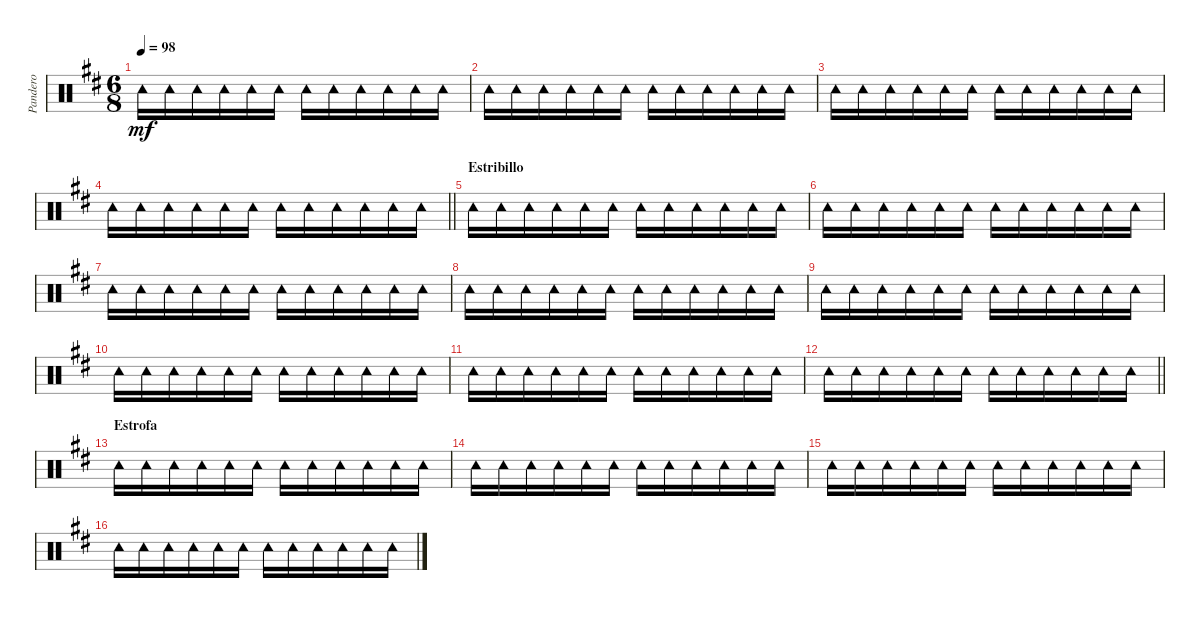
\track ("Pandero" "Pandero") {instrument percussion}
\staff {score}
\articulation defaults
\ts (6 8)
\tempo 98
\clef neutral
\ks d "Tambourine (hit)".16{dy mf} "Tambourine (hit)".16 "Tambourine (hit)".16 "Tambourine (hit)".16 "Tambourine (hit)".16 "Tambourine (hit)".16 "Tambourine (hit)".16 "Tambourine (hit)".16 "Tambourine (hit)".16 "Tambourine (hit)".16 "Tambourine (hit)".16 "Tambourine (hit)".16
|
"Tambourine (hit)".16 "Tambourine (hit)".16 "Tambourine (hit)".16 "Tambourine (hit)".16 "Tambourine (hit)".16 "Tambourine (hit)".16 "Tambourine (hit)".16 "Tambourine (hit)".16 "Tambourine (hit)".16 "Tambourine (hit)".16 "Tambourine (hit)".16 "Tambourine (hit)".16 |
"Tambourine (hit)".16 "Tambourine (hit)".16 "Tambourine (hit)".16 "Tambourine (hit)".16 "Tambourine (hit)".16 "Tambourine (hit)".16 "Tambourine (hit)".16 "Tambourine (hit)".16 "Tambourine (hit)".16 "Tambourine (hit)".16 "Tambourine (hit)".16 "Tambourine (hit)".16 |
\barLineRight lightlight "Tambourine (hit)".16 "Tambourine (hit)".16 "Tambourine (hit)".16 "Tambourine (hit)".16 "Tambourine (hit)".16 "Tambourine (hit)".16 "Tambourine (hit)".16 "Tambourine (hit)".16 "Tambourine (hit)".16 "Tambourine (hit)".16 "Tambourine (hit)".16 "Tambourine (hit)".16
|
\section ("" "Estribillo")
"Tambourine (hit)".16 "Tambourine (hit)".16 "Tambourine (hit)".16 "Tambourine (hit)".16 "Tambourine (hit)".16 "Tambourine (hit)".16 "Tambourine (hit)".16 "Tambourine (hit)".16 "Tambourine (hit)".16 "Tambourine (hit)".16 "Tambourine (hit)".16 "Tambourine (hit)".16 |
"Tambourine (hit)".16 "Tambourine (hit)".16 "Tambourine (hit)".16 "Tambourine (hit)".16 "Tambourine (hit)".16 "Tambourine (hit)".16 "Tambourine (hit)".16 "Tambourine (hit)".16 "Tambourine (hit)".16 "Tambourine (hit)".16 "Tambourine (hit)".16 "Tambourine (hit)".16 |
"Tambourine (hit)".16 "Tambourine (hit)".16 "Tambourine (hit)".16 "Tambourine (hit)".16 "Tambourine (hit)".16 "Tambourine (hit)".16 "Tambourine (hit)".16 "Tambourine (hit)".16 "Tambourine (hit)".16 "Tambourine (hit)".16 "Tambourine (hit)".16 "Tambourine (hit)".16 |
"Tambourine (hit)".16 "Tambourine (hit)".16 "Tambourine (hit)".16 "Tambourine (hit)".16 "Tambourine (hit)".16 "Tambourine (hit)".16 "Tambourine (hit)".16 "Tambourine (hit)".16 "Tambourine (hit)".16 "Tambourine (hit)".16 "Tambourine (hit)".16 "Tambourine (hit)".16 |
"Tambourine (hit)".16 "Tambourine (hit)".16 "Tambourine (hit)".16 "Tambourine (hit)".16 "Tambourine (hit)".16 "Tambourine (hit)".16 "Tambourine (hit)".16 "Tambourine (hit)".16 "Tambourine (hit)".16 "Tambourine (hit)".16 "Tambourine (hit)".16 "Tambourine (hit)".16 |
"Tambourine (hit)".16 "Tambourine (hit)".16 "Tambourine (hit)".16 "Tambourine (hit)".16 "Tambourine (hit)".16 "Tambourine (hit)".16 "Tambourine (hit)".16 "Tambourine (hit)".16 "Tambourine (hit)".16 "Tambourine (hit)".16 "Tambourine (hit)".16 "Tambourine (hit)".16 |
"Tambourine (hit)".16 "Tambourine (hit)".16 "Tambourine (hit)".16 "Tambourine (hit)".16 "Tambourine (hit)".16 "Tambourine (hit)".16 "Tambourine (hit)".16 "Tambourine (hit)".16 "Tambourine (hit)".16 "Tambourine (hit)".16 "Tambourine (hit)".16 "Tambourine (hit)".16 |
\barLineRight lightlight "Tambourine (hit)".16 "Tambourine (hit)".16 "Tambourine (hit)".16 "Tambourine (hit)".16 "Tambourine (hit)".16 "Tambourine (hit)".16 "Tambourine (hit)".16 "Tambourine (hit)".16 "Tambourine (hit)".16 "Tambourine (hit)".16 "Tambourine (hit)".16 "Tambourine (hit)".16
|
\section ("" "Estrofa")
"Tambourine (hit)".16 "Tambourine (hit)".16 "Tambourine (hit)".16 "Tambourine (hit)".16 "Tambourine (hit)".16 "Tambourine (hit)".16 "Tambourine (hit)".16 "Tambourine (hit)".16 "Tambourine (hit)".16 "Tambourine (hit)".16 "Tambourine (hit)".16 "Tambourine (hit)".16 |
"Tambourine (hit)".16 "Tambourine (hit)".16 "Tambourine (hit)".16 "Tambourine (hit)".16 "Tambourine (hit)".16 "Tambourine (hit)".16 "Tambourine (hit)".16 "Tambourine (hit)".16 "Tambourine (hit)".16 "Tambourine (hit)".16 "Tambourine (hit)".16 "Tambourine (hit)".16 |
"Tambourine (hit)".16 "Tambourine (hit)".16 "Tambourine (hit)".16 "Tambourine (hit)".16 "Tambourine (hit)".16 "Tambourine (hit)".16 "Tambourine (hit)".16 "Tambourine (hit)".16 "Tambourine (hit)".16 "Tambourine (hit)".16 "Tambourine (hit)".16 "Tambourine (hit)".16 |
"Tambourine (hit)".16 "Tambourine (hit)".16 "Tambourine (hit)".16 "Tambourine (hit)".16 "Tambourine (hit)".16 "Tambourine (hit)".16 "Tambourine (hit)".16 "Tambourine (hit)".16 "Tambourine (hit)".16 "Tambourine (hit)".16 "Tambourine (hit)".16 "Tambourine (hit)".16
